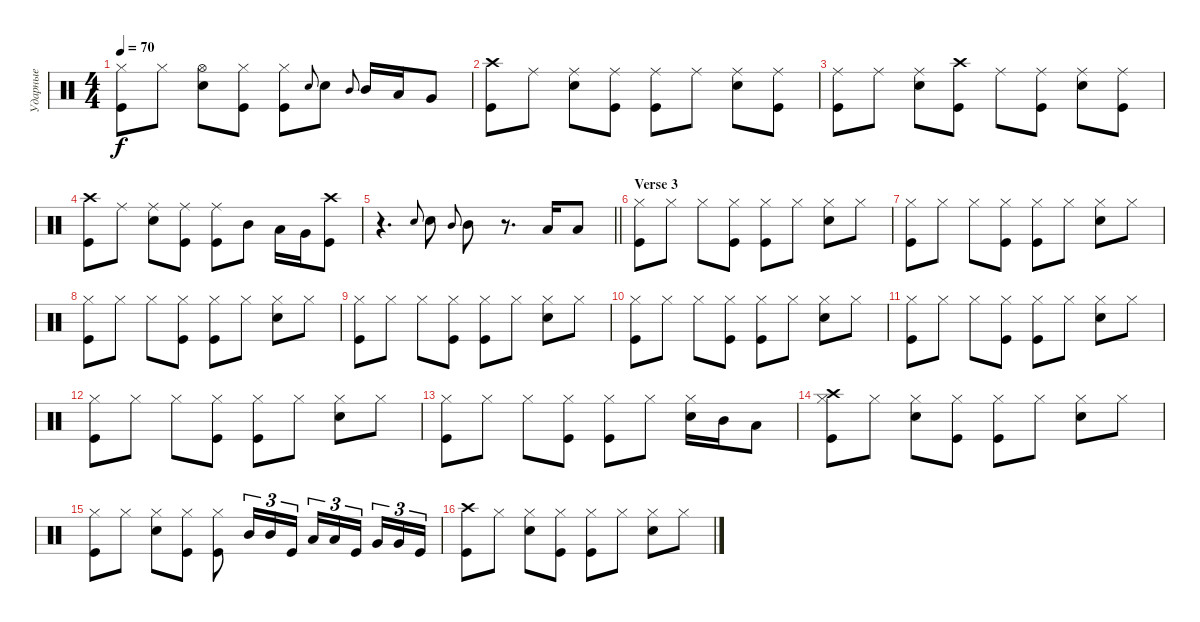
\track ("Ударные" "Ударные") {instrument percussion}
\staff {score}
\articulation defaults
\ts (4 4)
\tempo 70
\clef neutral
\ks c
("Kick (hit)" "Hi-Hat (closed)").8{dy f} "Hi-Hat (closed)".8 ("Snare (hit) 2" "Hi-Hat (open)").8 ("Hi-Hat (closed)" "Kick (hit)").8 ("Hi-Hat (closed)" "Kick (hit)").8 "Snare (hit) 2".8{gr onbeat} "Snare (hit) 2".8 "Mid Tom (hit)".8{gr onbeat} "Mid Tom (hit)".16 "Low Tom (hit)".16 "Very Low Tom (hit)".8 |
("Kick (hit)" "Crash high (hit)").8 "Ride (middle)".8 ("Ride (middle)" "Snare (hit) 2").8 ("Ride (middle)" "Kick (hit)").8 ("Ride (middle)" "Kick (hit)").8 "Ride (middle)".8 ("Ride (middle)" "Snare (hit) 2").8 ("Ride (middle)" "Kick (hit)").8 |
("Kick (hit)" "Ride (middle)").8 "Ride (middle)".8 ("Ride (middle)" "Snare (hit) 2").8 ("Kick (hit)" "Crash high (hit)").8 "Ride (middle)".8 ("Ride (middle)" "Kick (hit)").8 ("Ride (middle)" "Snare (hit) 2").8 ("Ride (middle)" "Kick (hit)").8 |
("Kick (hit)" "Crash high (hit)").8 "Ride (middle)".8 ("Ride (middle)" "Snare (hit) 2").8 ("Ride (middle)" "Kick (hit)").8 ("Ride (middle)" "Kick (hit)").8 "Mid Tom (hit)".8 "Low Tom (hit)".16 "Very Low Tom (hit)".16 ("Crash high (hit)" "Kick (hit)").8 |
\barLineRight lightlight
r.4{d} "Snare (hit) 2".8{gr onbeat} "Snare (hit) 2".8 "Mid Tom (hit)".8{gr onbeat} "Mid Tom (hit)".8 r.8{d} "Low Tom (hit)".16 "Low Tom (hit)".8 |
\section ("" "Verse 3")
("Kick (hit)" "Hi-Hat (closed)").8 "Hi-Hat (closed)".8 "Hi-Hat (closed)".8 ("Hi-Hat (closed)" "Kick (hit)").8 ("Hi-Hat (closed)" "Kick (hit)").8 "Hi-Hat (closed)".8 ("Hi-Hat (closed)" "Snare (hit) 2").8 "Hi-Hat (closed)".8 |
("Kick (hit)" "Hi-Hat (closed)").8 "Hi-Hat (closed)".8 "Hi-Hat (closed)".8 ("Hi-Hat (closed)" "Kick (hit)").8 ("Hi-Hat (closed)" "Kick (hit)").8 "Hi-Hat (closed)".8 ("Hi-Hat (closed)" "Snare (hit) 2").8 "Hi-Hat (closed)".8 |
("Kick (hit)" "Hi-Hat (closed)").8 "Hi-Hat (closed)".8 "Hi-Hat (closed)".8 ("Hi-Hat (closed)" "Kick (hit)").8 ("Hi-Hat (closed)" "Kick (hit)").8 "Hi-Hat (closed)".8 ("Hi-Hat (closed)" "Snare (hit) 2").8 "Hi-Hat (closed)".8 |
("Kick (hit)" "Hi-Hat (closed)").8 "Hi-Hat (closed)".8 "Hi-Hat (closed)".8 ("Hi-Hat (closed)" "Kick (hit)").8 ("Hi-Hat (closed)" "Kick (hit)").8 "Hi-Hat (closed)".8 ("Hi-Hat (closed)" "Snare (hit) 2").8 "Hi-Hat (closed)".8 |
("Kick (hit)" "Hi-Hat (closed)").8 "Hi-Hat (closed)".8 "Hi-Hat (closed)".8 ("Hi-Hat (closed)" "Kick (hit)").8 ("Hi-Hat (closed)" "Kick (hit)").8 "Hi-Hat (closed)".8 ("Hi-Hat (closed)" "Snare (hit) 2").8 "Hi-Hat (closed)".8 |
("Kick (hit)" "Hi-Hat (closed)").8 "Hi-Hat (closed)".8 "Hi-Hat (closed)".8 ("Hi-Hat (closed)" "Kick (hit)").8 ("Hi-Hat (closed)" "Kick (hit)").8 "Hi-Hat (closed)".8 ("Hi-Hat (closed)" "Snare (hit) 2").8 "Hi-Hat (closed)".8 |
("Kick (hit)" "Hi-Hat (closed)").8 "Hi-Hat (closed)".8 "Hi-Hat (closed)".8 ("Hi-Hat (closed)" "Kick (hit)").8 ("Hi-Hat (closed)" "Kick (hit)").8 "Hi-Hat (closed)".8 ("Hi-Hat (closed)" "Snare (hit) 2").8 "Hi-Hat (closed)".8 |
("Kick (hit)" "Hi-Hat (closed)").8 "Hi-Hat (closed)".8 "Hi-Hat (closed)".8 ("Hi-Hat (closed)" "Kick (hit)").8 ("Hi-Hat (closed)" "Kick (hit)").8 "Hi-Hat (closed)".8 ("Hi-Hat (closed)" "Snare (hit) 2").16 "Mid Tom (hit)".16 "Low Tom (hit)".8 |
("Kick (hit)" "Hi-Hat (closed)" "Crash high (hit)").8 "Hi-Hat (closed)".8 ("Hi-Hat (closed)" "Snare (hit) 2").8 ("Hi-Hat (closed)" "Kick (hit)").8 ("Hi-Hat (closed)" "Kick (hit)").8 "Hi-Hat (closed)".8 ("Hi-Hat (closed)" "Snare (hit) 2").8 "Hi-Hat (closed)".8 |
("Kick (hit)" "Hi-Hat (closed)").8 "Hi-Hat (closed)".8 ("Hi-Hat (closed)" "Snare (hit) 2").8 ("Hi-Hat (closed)" "Kick (hit)").8 ("Hi-Hat (closed)" "Kick (hit)").8 "Mid Tom (hit)".16{tu (3 2)} "Mid Tom (hit)".16{tu (3 2)} "Kick (hit)".16{tu (3 2)} "Low Tom (hit)".16{tu (3 2)} "Low Tom (hit)".16{tu (3 2)} "Kick (hit)".16{tu (3 2) beam splitsecondary} "Very Low Tom (hit)".16{tu (3 2)} "Very Low Tom (hit)".16{tu (3 2)} "Kick (hit)".16{tu (3 2)} |
("Kick (hit)" "Crash high (hit)").8 "Hi-Hat (closed)".8 ("Hi-Hat (closed)" "Snare (hit) 2").8 ("Hi-Hat (closed)" "Kick (hit)").8 ("Hi-Hat (closed)" "Kick (hit)").8 "Hi-Hat (closed)".8 ("Hi-Hat (closed)" "Snare (hit) 2").8 "Hi-Hat (closed)".8
